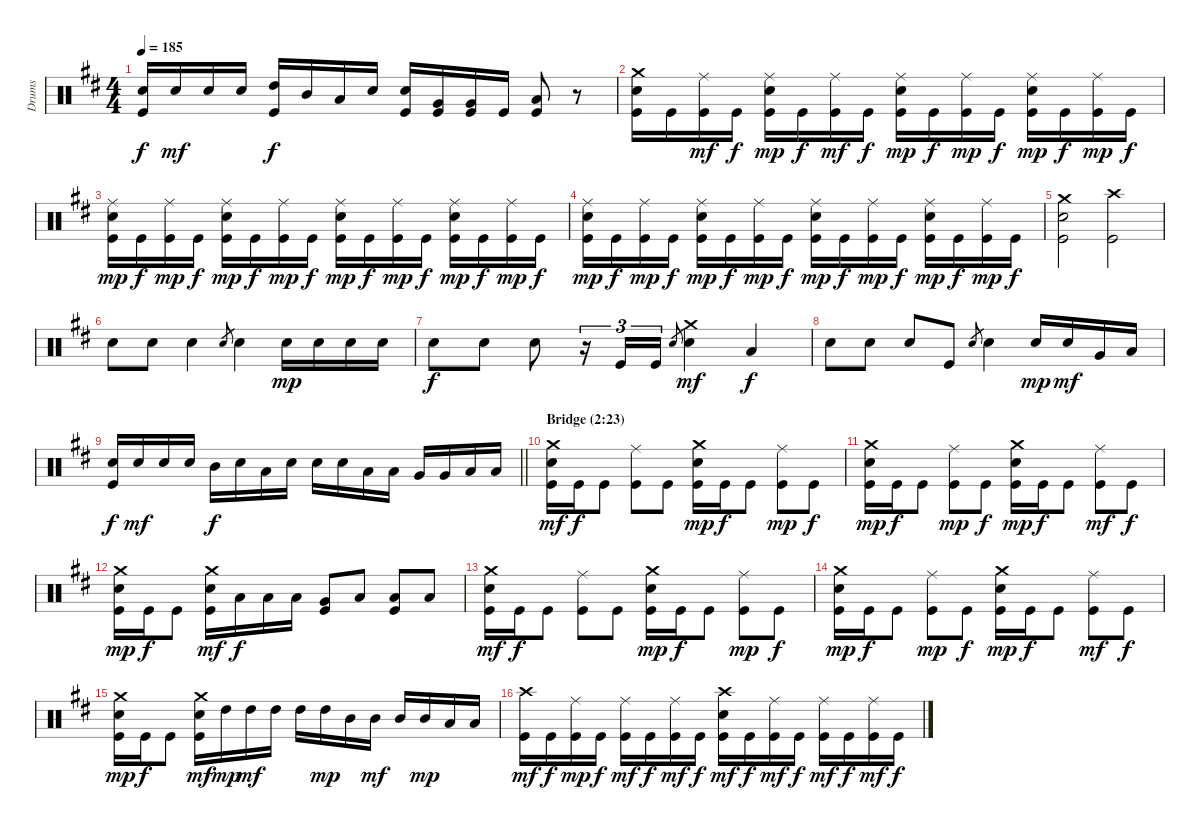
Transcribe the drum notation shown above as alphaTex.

\track ("Drums" "Drums") {instrument percussion}
\staff {score}
\articulation defaults
\ts (4 4)
\tempo 185
\clef neutral
\ks bminor
("Snare (hit) 2" "Kick (hit)").16{dy f} "Snare (hit) 2".16{dy mf} "Snare (hit) 2".16 "Snare (hit) 2".16 ("High Tom (hit)" "Kick (hit)").16{dy f} "Mid Tom (hit)".16 "Low Tom (hit)".16 "Snare (hit) 2".16 ("Snare (hit) 2" "Kick (hit)").16 ("Very Low Tom (hit)" "Kick (hit)").16 ("Very Low Tom (hit)" "Kick (hit)").16 "Kick (hit)".16 ("Low Floor Tom (hit)" "Kick (hit)").8 r.8 |
("Crash medium (hit)" "Snare (hit) 2" "Kick (hit)").16 "Kick (hit)".16 ("Ride (middle)" "Kick (hit)").16{dy mf} "Kick (hit)".16{dy f} ("Ride (middle)" "Snare (hit) 2" "Kick (hit)").16{dy mp} "Kick (hit)".16{dy f} ("Ride (middle)" "Kick (hit)").16{dy mf} "Kick (hit)".16{dy f} ("Ride (middle)" "Snare (hit) 2" "Kick (hit)").16{dy mp} "Kick (hit)".16{dy f} ("Ride (middle)" "Kick (hit)").16{dy mp} "Kick (hit)".16{dy f} ("Ride (middle)" "Snare (hit) 2" "Kick (hit)").16{dy mp} "Kick (hit)".16{dy f} ("Ride (middle)" "Kick (hit)").16{dy mp} "Kick (hit)".16{dy f} |
("Ride (middle)" "Snare (hit) 2" "Kick (hit)").16{dy mp} "Kick (hit)".16{dy f} ("Ride (middle)" "Kick (hit)").16{dy mp} "Kick (hit)".16{dy f} ("Ride (middle)" "Snare (hit) 2" "Kick (hit)").16{dy mp} "Kick (hit)".16{dy f} ("Ride (middle)" "Kick (hit)").16{dy mp} "Kick (hit)".16{dy f} ("Ride (middle)" "Snare (hit) 2" "Kick (hit)").16{dy mp} "Kick (hit)".16{dy f} ("Ride (middle)" "Kick (hit)").16{dy mp} "Kick (hit)".16{dy f} ("Ride (middle)" "Snare (hit) 2" "Kick (hit)").16{dy mp} "Kick (hit)".16{dy f} ("Ride (middle)" "Kick (hit)").16{dy mp} "Kick (hit)".16{dy f} |
("Ride (middle)" "Snare (hit) 2" "Kick (hit)").16{dy mp} "Kick (hit)".16{dy f} ("Ride (middle)" "Kick (hit)").16{dy mp} "Kick (hit)".16{dy f} ("Ride (middle)" "Snare (hit) 2" "Kick (hit)").16{dy mp} "Kick (hit)".16{dy f} ("Ride (middle)" "Kick (hit)").16{dy mp} "Kick (hit)".16{dy f} ("Ride (middle)" "Snare (hit) 2" "Kick (hit)").16{dy mp} "Kick (hit)".16{dy f} ("Ride (middle)" "Kick (hit)").16{dy mp} "Kick (hit)".16{dy f} ("Ride (middle)" "Snare (hit) 2" "Kick (hit)").16{dy mp} "Kick (hit)".16{dy f} ("Ride (middle)" "Kick (hit)").16{dy mp} "Kick (hit)".16{dy f} |
("Crash medium (hit)" "Snare (hit) 2" "Kick (hit)").2 ("Crash high (hit)" "Kick (hit)").2 |
"Snare (hit) 2".8 "Snare (hit) 2".8 "Snare (hit) 2".4 "Snare (hit) 2".8{gr} "Snare (hit) 2".4 "Snare (hit) 2".16{dy mp} "Snare (hit) 2".16 "Snare (hit) 2".16 "Snare (hit) 2".16 |
"Snare (hit) 2".8{dy f} "Snare (hit) 2".8 "Snare (hit) 2".8 r.16{tu (3 2)} "Kick (hit)".16{tu (3 2)} "Kick (hit)".16{tu (3 2)} "Snare (hit) 2".8{gr} ("Crash medium (hit)" "Snare (hit) 2").4{dy mf} "Low Floor Tom (hit)".4{dy f} |
"Snare (hit) 2".8 "Snare (hit) 2".8 "Snare (hit) 2".8 "Kick (hit)".8 "Snare (hit) 2".8{gr} "Snare (hit) 2".4 "Snare (hit) 2".16{dy mp} "Snare (hit) 2".16{dy mf} "Very Low Tom (hit)".16 "Low Floor Tom (hit)".16 |
\barLineRight lightlight
("Snare (hit) 2" "Kick (hit)").16{dy f} "Snare (hit) 2".16{dy mf} "Snare (hit) 2".16 "Snare (hit) 2".16 "Mid Tom (hit)".16{dy f} "Snare (hit) 2".16 "Low Tom (hit)".16 "Snare (hit) 2".16 "Snare (hit) 2".16 "Snare (hit) 2".16 "Low Tom (hit)".16 "Low Tom (hit)".16 "Very Low Tom (hit)".16 "Very Low Tom (hit)".16 "Low Floor Tom (hit)".16 "Low Floor Tom (hit)".16 |
\section ("" "Bridge (2:23)")
("Crash medium (hit)" "Snare (hit) 2" "Kick (hit)").16{dy mf} "Kick (hit)".16{dy f} "Kick (hit)".8 ("Ride (middle)" "Kick (hit)").8 "Kick (hit)".8 ("Crash medium (hit)" "Snare (hit) 2" "Kick (hit)").16{dy mp} "Kick (hit)".16{dy f} "Kick (hit)".8 ("Ride (middle)" "Kick (hit)").8{dy mp} "Kick (hit)".8{dy f} |
("Crash medium (hit)" "Snare (hit) 2" "Kick (hit)").16{dy mp} "Kick (hit)".16{dy f} "Kick (hit)".8 ("Ride (middle)" "Kick (hit)").8{dy mp} "Kick (hit)".8{dy f} ("Crash medium (hit)" "Snare (hit) 2" "Kick (hit)").16{dy mp} "Kick (hit)".16{dy f} "Kick (hit)".8 ("Ride (middle)" "Kick (hit)").8{dy mf} "Kick (hit)".8{dy f} |
("Crash medium (hit)" "Snare (hit) 2" "Kick (hit)").16{dy mp} "Kick (hit)".16{dy f} "Kick (hit)".8 ("Crash medium (hit)" "Snare (hit) 2" "Kick (hit)").16{dy mf} "Low Tom (hit)".16{dy f} "Low Tom (hit)".16 "Low Tom (hit)".16 ("Very Low Tom (hit)" "Kick (hit)").8 "Low Floor Tom (hit)".8 ("Low Floor Tom (hit)" "Kick (hit)").8 "Low Floor Tom (hit)".8 |
("Crash medium (hit)" "Snare (hit) 2" "Kick (hit)").16{dy mf} "Kick (hit)".16{dy f} "Kick (hit)".8 ("Ride (middle)" "Kick (hit)").8 "Kick (hit)".8 ("Crash medium (hit)" "Snare (hit) 2" "Kick (hit)").16{dy mp} "Kick (hit)".16{dy f} "Kick (hit)".8 ("Ride (middle)" "Kick (hit)").8{dy mp} "Kick (hit)".8{dy f} |
("Crash medium (hit)" "Snare (hit) 2" "Kick (hit)").16{dy mp} "Kick (hit)".16{dy f} "Kick (hit)".8 ("Ride (middle)" "Kick (hit)").8{dy mp} "Kick (hit)".8{dy f} ("Crash medium (hit)" "Snare (hit) 2" "Kick (hit)").16{dy mp} "Kick (hit)".16{dy f} "Kick (hit)".8 ("Ride (middle)" "Kick (hit)").8{dy mf} "Kick (hit)".8{dy f} |
("Crash medium (hit)" "Snare (hit) 2" "Kick (hit)").16{dy mp} "Kick (hit)".16{dy f} "Kick (hit)".8 ("Crash medium (hit)" "Snare (hit) 2" "Kick (hit)").16{dy mf} "High Tom (hit)".16{dy mp} "High Tom (hit)".16{dy mf} "High Tom (hit)".16 "High Tom (hit)".16 "High Tom (hit)".16{dy mp} "Mid Tom (hit)".16 "Mid Tom (hit)".16{dy mf} "Mid Tom (hit)".16 "Mid Tom (hit)".16{dy mp} "Low Tom (hit)".16 "Low Tom (hit)".16 |
("Crash high (hit)" "Kick (hit)").16{dy mf} "Kick (hit)".16{dy f} ("Ride (middle)" "Kick (hit)").16{dy mp} "Kick (hit)".16{dy f} ("Ride (middle)" "Kick (hit)").16{dy mf} "Kick (hit)".16{dy f} ("Ride (middle)" "Kick (hit)").16{dy mf} "Kick (hit)".16{dy f} ("Crash high (hit)" "Snare (hit) 2" "Kick (hit)").16{dy mf} "Kick (hit)".16{dy f} ("Ride (middle)" "Kick (hit)").16{dy mf} "Kick (hit)".16{dy f} ("Ride (middle)" "Kick (hit)").16{dy mf} "Kick (hit)".16{dy f} ("Ride (middle)" "Kick (hit)").16{dy mf} "Kick (hit)".16{dy f}
